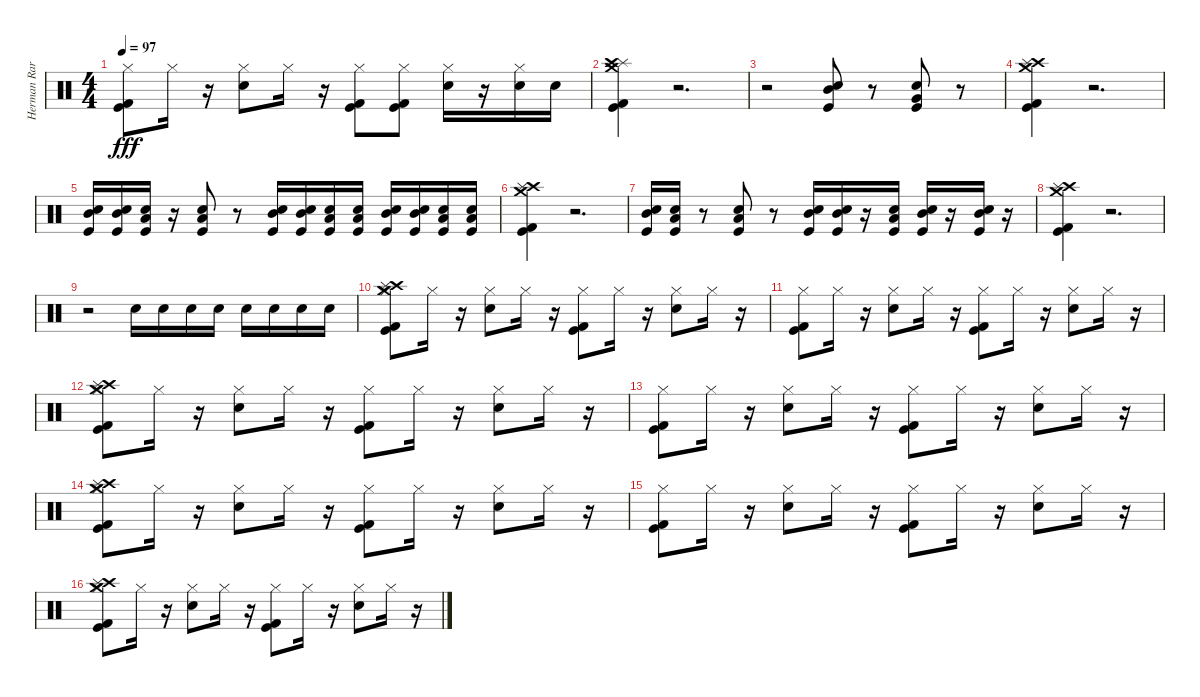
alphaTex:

\track ("Herman Rarebel" "Herman Rar") {instrument percussion}
\staff {score}
\articulation defaults
\ts (4 4)
\tempo 97
\clef neutral
\ks c
("Kick (hit) 2" "Kick (hit)" "Hi-Hat (closed)").8{dy fff} "Hi-Hat (closed)".16 r.16 ("Snare (hit) 2" "Hi-Hat (closed)").8 "Hi-Hat (closed)".16 r.16 ("Kick (hit) 2" "Kick (hit)" "Hi-Hat (closed)").8 ("Hi-Hat (closed)" "Kick (hit) 2" "Kick (hit)").8 ("Hi-Hat (closed)" "Snare (hit) 2").16 r.16 ("Hi-Hat (closed)" "Snare (hit) 2").16 "Snare (hit) 2".16 |
("Crash medium (hit)" "Splash (hit)" "Crash high (hit)" "Kick (hit) 2" "Kick (hit)").4 r.2{d} |
r.2 ("Mid Tom (hit)" "Kick (hit)" "Electric Snare (hit)").8 r.8 ("Very Low Tom (hit)" "Kick (hit)" "Electric Snare (hit)").8 r.8 |
("Kick (hit) 2" "Kick (hit)" "Crash high (hit)" "Splash (hit)" "Crash medium (hit)").4 r.2{d} |
("Kick (hit)" "Mid Tom (hit)" "Electric Snare (hit)").16 ("Mid Tom (hit)" "Kick (hit)" "Electric Snare (hit)").16 ("Low Tom (hit)" "Kick (hit)" "Electric Snare (hit)").16 r.16 ("Kick (hit)" "Low Floor Tom (hit)" "Electric Snare (hit)").8 r.8 ("Mid Tom (hit)" "Kick (hit)" "Electric Snare (hit)").16 ("Mid Tom (hit)" "Kick (hit)" "Electric Snare (hit)").16 ("Low Tom (hit)" "Kick (hit)" "Electric Snare (hit)").16 ("Kick (hit)" "Low Floor Tom (hit)" "Electric Snare (hit)").16 ("Mid Tom (hit)" "Kick (hit)" "Electric Snare (hit)").16 ("Mid Tom (hit)" "Kick (hit)" "Electric Snare (hit)").16 ("Low Tom (hit)" "Kick (hit)" "Electric Snare (hit)").16 ("Kick (hit)" "Low Floor Tom (hit)" "Electric Snare (hit)").16 |
("Kick (hit)" "Kick (hit) 2" "Crash high (hit)" "Splash (hit)" "Crash medium (hit)").4 r.2{d} |
("Mid Tom (hit)" "Kick (hit)" "Electric Snare (hit)").16 ("Low Tom (hit)" "Kick (hit)" "Electric Snare (hit)").16 r.8 ("Kick (hit)" "Low Floor Tom (hit)" "Electric Snare (hit)").8 r.8 ("Mid Tom (hit)" "Kick (hit)" "Electric Snare (hit)").16 ("Mid Tom (hit)" "Kick (hit)" "Electric Snare (hit)").16 r.16 ("Kick (hit)" "Low Floor Tom (hit)" "Electric Snare (hit)").16 ("Mid Tom (hit)" "Kick (hit)" "Electric Snare (hit)").16 r.16 ("Mid Tom (hit)" "Kick (hit)" "Electric Snare (hit)").16 r.16 |
("Kick (hit)" "Kick (hit) 2" "Crash high (hit)" "Splash (hit)" "Crash medium (hit)").4 r.2{d} |
r.2 "Snare (hit) 2".16 "Snare (hit) 2".16 "Snare (hit) 2".16 "Snare (hit) 2".16 "Snare (hit) 2".16 "Snare (hit) 2".16 "Snare (hit) 2".16 "Snare (hit) 2".16 |
("Hi-Hat (closed)" "Crash high (hit)" "Splash (hit)" "Crash medium (hit)" "Kick (hit)" "Kick (hit) 2").8 "Hi-Hat (closed)".16 r.16 ("Snare (hit) 2" "Hi-Hat (closed)").8 "Hi-Hat (closed)".16 r.16 ("Kick (hit) 2" "Kick (hit)" "Hi-Hat (closed)").8 "Hi-Hat (closed)".16 r.16 ("Snare (hit) 2" "Hi-Hat (closed)").8 "Hi-Hat (closed)".16 r.16 |
("Hi-Hat (closed)" "Kick (hit)" "Kick (hit) 2").8 "Hi-Hat (closed)".16 r.16 ("Snare (hit) 2" "Hi-Hat (closed)").8 "Hi-Hat (closed)".16 r.16 ("Kick (hit) 2" "Kick (hit)" "Hi-Hat (closed)").8 "Hi-Hat (closed)".16 r.16 ("Snare (hit) 2" "Hi-Hat (closed)").8 "Hi-Hat (closed)".16 r.16 |
("Hi-Hat (closed)" "Crash high (hit)" "Splash (hit)" "Crash medium (hit)" "Kick (hit)" "Kick (hit) 2").8 "Hi-Hat (closed)".16 r.16 ("Snare (hit) 2" "Hi-Hat (closed)").8 "Hi-Hat (closed)".16 r.16 ("Kick (hit) 2" "Kick (hit)" "Hi-Hat (closed)").8 "Hi-Hat (closed)".16 r.16 ("Snare (hit) 2" "Hi-Hat (closed)").8 "Hi-Hat (closed)".16 r.16 |
("Hi-Hat (closed)" "Kick (hit)" "Kick (hit) 2").8 "Hi-Hat (closed)".16 r.16 ("Snare (hit) 2" "Hi-Hat (closed)").8 "Hi-Hat (closed)".16 r.16 ("Kick (hit) 2" "Kick (hit)" "Hi-Hat (closed)").8 "Hi-Hat (closed)".16 r.16 ("Snare (hit) 2" "Hi-Hat (closed)").8 "Hi-Hat (closed)".16 r.16 |
("Hi-Hat (closed)" "Crash high (hit)" "Splash (hit)" "Crash medium (hit)" "Kick (hit)" "Kick (hit) 2").8 "Hi-Hat (closed)".16 r.16 ("Snare (hit) 2" "Hi-Hat (closed)").8 "Hi-Hat (closed)".16 r.16 ("Kick (hit) 2" "Kick (hit)" "Hi-Hat (closed)").8 "Hi-Hat (closed)".16 r.16 ("Snare (hit) 2" "Hi-Hat (closed)").8 "Hi-Hat (closed)".16 r.16 |
("Hi-Hat (closed)" "Kick (hit)" "Kick (hit) 2").8 "Hi-Hat (closed)".16 r.16 ("Snare (hit) 2" "Hi-Hat (closed)").8 "Hi-Hat (closed)".16 r.16 ("Kick (hit) 2" "Kick (hit)" "Hi-Hat (closed)").8 "Hi-Hat (closed)".16 r.16 ("Snare (hit) 2" "Hi-Hat (closed)").8 "Hi-Hat (closed)".16 r.16 |
("Hi-Hat (closed)" "Crash high (hit)" "Splash (hit)" "Crash medium (hit)" "Kick (hit)" "Kick (hit) 2").8 "Hi-Hat (closed)".16 r.16 ("Snare (hit) 2" "Hi-Hat (closed)").8 "Hi-Hat (closed)".16 r.16 ("Kick (hit) 2" "Kick (hit)" "Hi-Hat (closed)").8 "Hi-Hat (closed)".16 r.16 ("Snare (hit) 2" "Hi-Hat (closed)").8 "Hi-Hat (closed)".16 r.16
